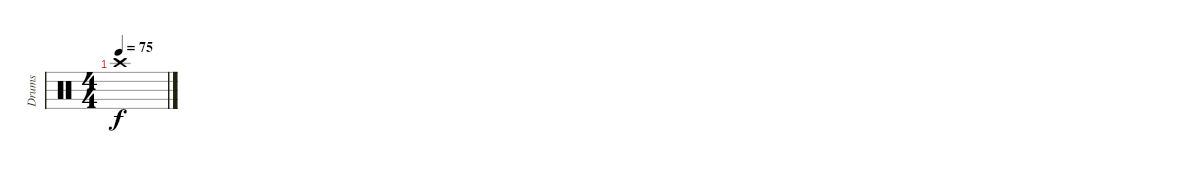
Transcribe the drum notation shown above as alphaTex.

\track ("Drums" "Drums") {instrument percussion}
\staff {score}
\articulation defaults
\ts (4 4)
\tempo 75
\clef neutral
\ks c "Crash high (hit)".1{dy f}
